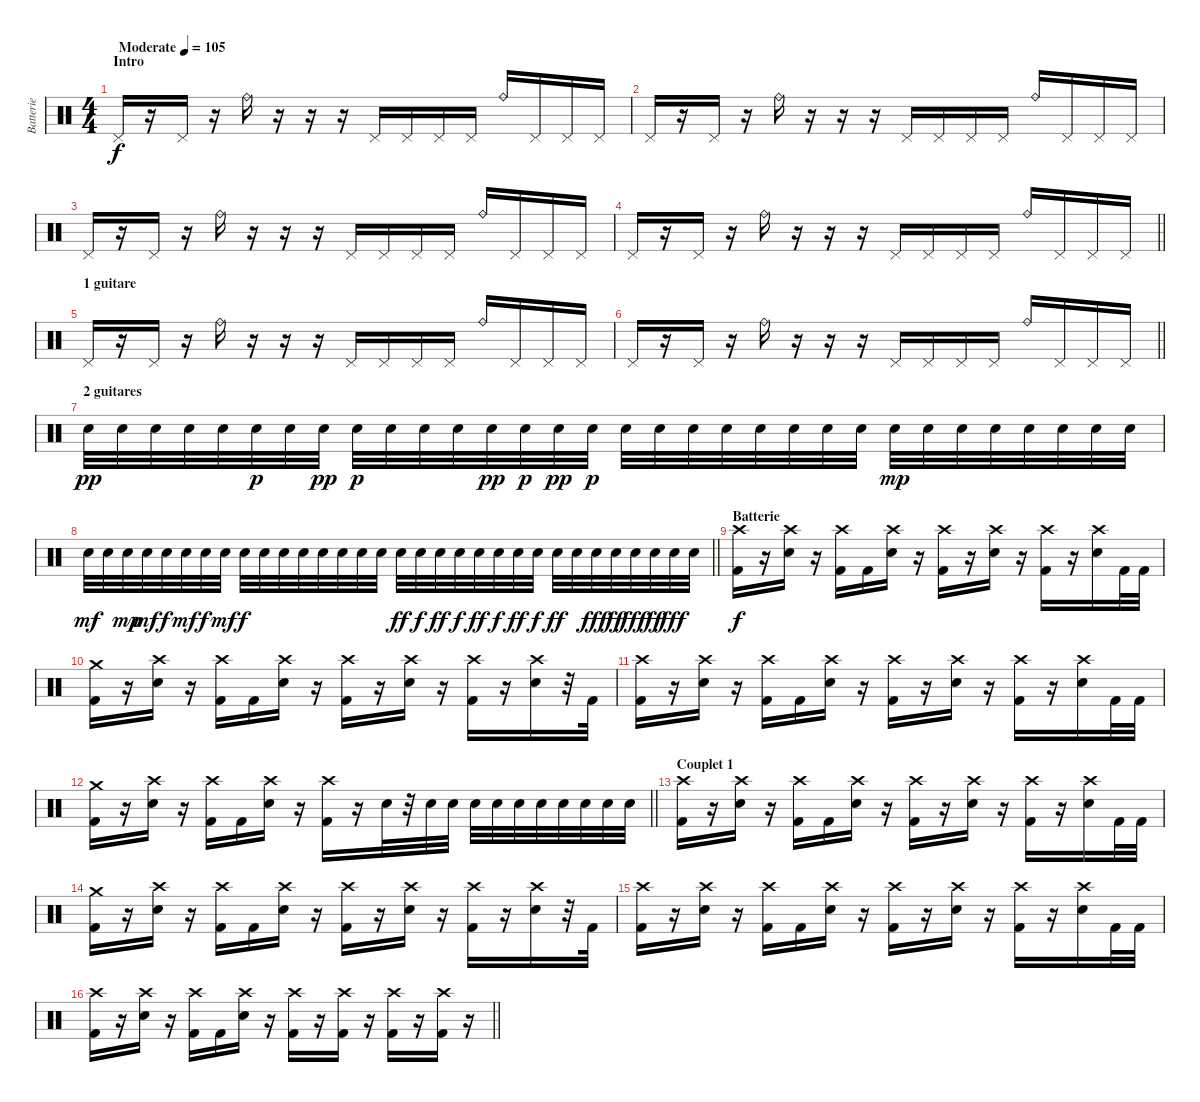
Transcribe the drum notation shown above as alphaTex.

\track ("Batterie" "Batterie") {instrument percussion}
\staff {score}
\articulation defaults
\ts (4 4)
\section ("" "Intro")
\tempo (105 "Moderate")
\clef neutral
\ks c "Pedal Hi-Hat (hit)".16{dy f}
r.16 "Pedal Hi-Hat (hit)".16 r.16 "Ride (bell)".16 r.16 r.16 r.16 "Pedal Hi-Hat (hit)".16 "Pedal Hi-Hat (hit)".16 "Pedal Hi-Hat (hit)".16 "Pedal Hi-Hat (hit)".16 "Ride (bell)".16 "Pedal Hi-Hat (hit)".16 "Pedal Hi-Hat (hit)".16 "Pedal Hi-Hat (hit)".16 |
"Pedal Hi-Hat (hit)".16 r.16 "Pedal Hi-Hat (hit)".16 r.16 "Ride (bell)".16 r.16 r.16 r.16 "Pedal Hi-Hat (hit)".16 "Pedal Hi-Hat (hit)".16 "Pedal Hi-Hat (hit)".16 "Pedal Hi-Hat (hit)".16 "Ride (bell)".16 "Pedal Hi-Hat (hit)".16 "Pedal Hi-Hat (hit)".16 "Pedal Hi-Hat (hit)".16 |
"Pedal Hi-Hat (hit)".16 r.16 "Pedal Hi-Hat (hit)".16 r.16 "Ride (bell)".16 r.16 r.16 r.16 "Pedal Hi-Hat (hit)".16 "Pedal Hi-Hat (hit)".16 "Pedal Hi-Hat (hit)".16 "Pedal Hi-Hat (hit)".16 "Ride (bell)".16 "Pedal Hi-Hat (hit)".16 "Pedal Hi-Hat (hit)".16 "Pedal Hi-Hat (hit)".16 |
\barLineRight lightlight "Pedal Hi-Hat (hit)".16
r.16 "Pedal Hi-Hat (hit)".16 r.16 "Ride (bell)".16 r.16 r.16 r.16 "Pedal Hi-Hat (hit)".16 "Pedal Hi-Hat (hit)".16 "Pedal Hi-Hat (hit)".16 "Pedal Hi-Hat (hit)".16 "Ride (bell)".16 "Pedal Hi-Hat (hit)".16 "Pedal Hi-Hat (hit)".16 "Pedal Hi-Hat (hit)".16 |
\section ("" "1 guitare")
"Pedal Hi-Hat (hit)".16 r.16 "Pedal Hi-Hat (hit)".16 r.16 "Ride (bell)".16 r.16 r.16 r.16 "Pedal Hi-Hat (hit)".16 "Pedal Hi-Hat (hit)".16 "Pedal Hi-Hat (hit)".16 "Pedal Hi-Hat (hit)".16 "Ride (bell)".16 "Pedal Hi-Hat (hit)".16 "Pedal Hi-Hat (hit)".16 "Pedal Hi-Hat (hit)".16 |
\barLineRight lightlight "Pedal Hi-Hat (hit)".16
r.16 "Pedal Hi-Hat (hit)".16 r.16 "Ride (bell)".16 r.16 r.16 r.16 "Pedal Hi-Hat (hit)".16 "Pedal Hi-Hat (hit)".16 "Pedal Hi-Hat (hit)".16 "Pedal Hi-Hat (hit)".16 "Ride (bell)".16 "Pedal Hi-Hat (hit)".16 "Pedal Hi-Hat (hit)".16 "Pedal Hi-Hat (hit)".16 |
\section ("" "2 guitares")
"Electric Snare (hit)".32{dy pp} "Electric Snare (hit)".32 "Electric Snare (hit)".32 "Electric Snare (hit)".32 "Electric Snare (hit)".32 "Electric Snare (hit)".32{dy p} "Electric Snare (hit)".32 "Electric Snare (hit)".32{dy pp} "Electric Snare (hit)".32{dy p} "Electric Snare (hit)".32 "Electric Snare (hit)".32 "Electric Snare (hit)".32 "Electric Snare (hit)".32{dy pp} "Electric Snare (hit)".32{dy p} "Electric Snare (hit)".32{dy pp} "Electric Snare (hit)".32{dy p} "Electric Snare (hit)".32 "Electric Snare (hit)".32 "Electric Snare (hit)".32 "Electric Snare (hit)".32 "Electric Snare (hit)".32 "Electric Snare (hit)".32 "Electric Snare (hit)".32 "Electric Snare (hit)".32 "Electric Snare (hit)".32{dy mp} "Electric Snare (hit)".32 "Electric Snare (hit)".32 "Electric Snare (hit)".32 "Electric Snare (hit)".32 "Electric Snare (hit)".32 "Electric Snare (hit)".32 "Electric Snare (hit)".32 |
\barLineRight lightlight "Electric Snare (hit)".32{dy mf} "Electric Snare (hit)".32 "Electric Snare (hit)".32{dy mp} "Electric Snare (hit)".32{dy mf} "Electric Snare (hit)".32{dy f} "Electric Snare (hit)".32{dy mf} "Electric Snare (hit)".32{dy f} "Electric Snare (hit)".32{dy mf} "Electric Snare (hit)".32{dy f} "Electric Snare (hit)".32 "Electric Snare (hit)".32 "Electric Snare (hit)".32 "Electric Snare (hit)".32 "Electric Snare (hit)".32 "Electric Snare (hit)".32 "Electric Snare (hit)".32 "Electric Snare (hit)".32{dy ff} "Electric Snare (hit)".32{dy f} "Electric Snare (hit)".32{dy ff} "Electric Snare (hit)".32{dy f} "Electric Snare (hit)".32{dy ff} "Electric Snare (hit)".32{dy f} "Electric Snare (hit)".32{dy ff} "Electric Snare (hit)".32{dy f} "Electric Snare (hit)".32{dy ff} "Electric Snare (hit)".32 "Electric Snare (hit)".32{dy fff} "Electric Snare (hit)".32{dy ff} "Electric Snare (hit)".32{dy fff} "Electric Snare (hit)".32{dy ff} "Electric Snare (hit)".32{dy fff} "Electric Snare (hit)".32
|
\section ("" "Batterie")
("Kick (hit) 2" "Crash high (hit)").16{dy f} r.16 ("Electric Snare (hit)" "Crash high (hit)").16 r.16 ("Kick (hit) 2" "Crash high (hit)").16 "Kick (hit) 2".16 ("Electric Snare (hit)" "Crash high (hit)").16 r.16 ("Kick (hit) 2" "Crash high (hit)").16 r.16 ("Electric Snare (hit)" "Crash high (hit)").16 r.16 ("Kick (hit) 2" "Crash high (hit)").16 r.16 ("Electric Snare (hit)" "Crash high (hit)").16 "Kick (hit) 2".32 "Kick (hit) 2".32 |
("Kick (hit) 2" "Crash medium (hit)").16 r.16 ("Electric Snare (hit)" "Crash high (hit)").16 r.16 ("Kick (hit) 2" "Crash high (hit)").16 "Kick (hit) 2".16 ("Electric Snare (hit)" "Crash high (hit)").16 r.16 ("Kick (hit) 2" "Crash high (hit)").16 r.16 ("Electric Snare (hit)" "Crash high (hit)").16 r.16 ("Kick (hit) 2" "Crash high (hit)").16 r.16 ("Electric Snare (hit)" "Crash high (hit)").16 r.32 "Kick (hit) 2".32 |
("Kick (hit) 2" "Crash high (hit)").16 r.16 ("Electric Snare (hit)" "Crash high (hit)").16 r.16 ("Kick (hit) 2" "Crash high (hit)").16 "Kick (hit) 2".16 ("Electric Snare (hit)" "Crash high (hit)").16 r.16 ("Kick (hit) 2" "Crash high (hit)").16 r.16 ("Electric Snare (hit)" "Crash high (hit)").16 r.16 ("Kick (hit) 2" "Crash high (hit)").16 r.16 ("Electric Snare (hit)" "Crash high (hit)").16 "Kick (hit) 2".32 "Kick (hit) 2".32 |
\barLineRight lightlight
("Kick (hit) 2" "Crash medium (hit)").16 r.16 ("Electric Snare (hit)" "Crash high (hit)").16 r.16 ("Kick (hit) 2" "Crash high (hit)").16 "Kick (hit) 2".16 ("Electric Snare (hit)" "Crash high (hit)").16 r.16 ("Kick (hit) 2" "Crash high (hit)").16 r.16 "Electric Snare (hit)".32 r.32 "Electric Snare (hit)".32 "Electric Snare (hit)".32 "Electric Snare (hit)".32 "Electric Snare (hit)".32 "Electric Snare (hit)".32 "Electric Snare (hit)".32 "Electric Snare (hit)".32 "Electric Snare (hit)".32 "Electric Snare (hit)".32 "Electric Snare (hit)".32 |
\section ("" "Couplet 1")
("Kick (hit) 2" "Crash high (hit)").16 r.16 ("Electric Snare (hit)" "Crash high (hit)").16 r.16 ("Kick (hit) 2" "Crash high (hit)").16 "Kick (hit) 2".16 ("Electric Snare (hit)" "Crash high (hit)").16 r.16 ("Kick (hit) 2" "Crash high (hit)").16 r.16 ("Electric Snare (hit)" "Crash high (hit)").16 r.16 ("Kick (hit) 2" "Crash high (hit)").16 r.16 ("Electric Snare (hit)" "Crash high (hit)").16 "Kick (hit) 2".32 "Kick (hit) 2".32 |
("Kick (hit) 2" "Crash medium (hit)").16 r.16 ("Electric Snare (hit)" "Crash high (hit)").16 r.16 ("Kick (hit) 2" "Crash high (hit)").16 "Kick (hit) 2".16 ("Electric Snare (hit)" "Crash high (hit)").16 r.16 ("Kick (hit) 2" "Crash high (hit)").16 r.16 ("Electric Snare (hit)" "Crash high (hit)").16 r.16 ("Kick (hit) 2" "Crash high (hit)").16 r.16 ("Electric Snare (hit)" "Crash high (hit)").16 r.32 "Kick (hit) 2".32 |
("Kick (hit) 2" "Crash high (hit)").16 r.16 ("Electric Snare (hit)" "Crash high (hit)").16 r.16 ("Kick (hit) 2" "Crash high (hit)").16 "Kick (hit) 2".16 ("Electric Snare (hit)" "Crash high (hit)").16 r.16 ("Kick (hit) 2" "Crash high (hit)").16 r.16 ("Electric Snare (hit)" "Crash high (hit)").16 r.16 ("Kick (hit) 2" "Crash high (hit)").16 r.16 ("Electric Snare (hit)" "Crash high (hit)").16 "Kick (hit) 2".32 "Kick (hit) 2".32 |
\barLineRight lightlight
("Kick (hit) 2" "Crash high (hit)").16 r.16 ("Electric Snare (hit)" "Crash high (hit)").16 r.16 ("Kick (hit) 2" "Crash high (hit)").16 "Kick (hit) 2".16 ("Electric Snare (hit)" "Crash high (hit)").16 r.16 ("Kick (hit) 2" "Crash high (hit)").16 r.16 ("Kick (hit) 2" "Crash high (hit)").16 r.16 ("Kick (hit) 2" "Crash high (hit)").16 r.16 ("Kick (hit) 2" "Crash high (hit)").16 r.16
